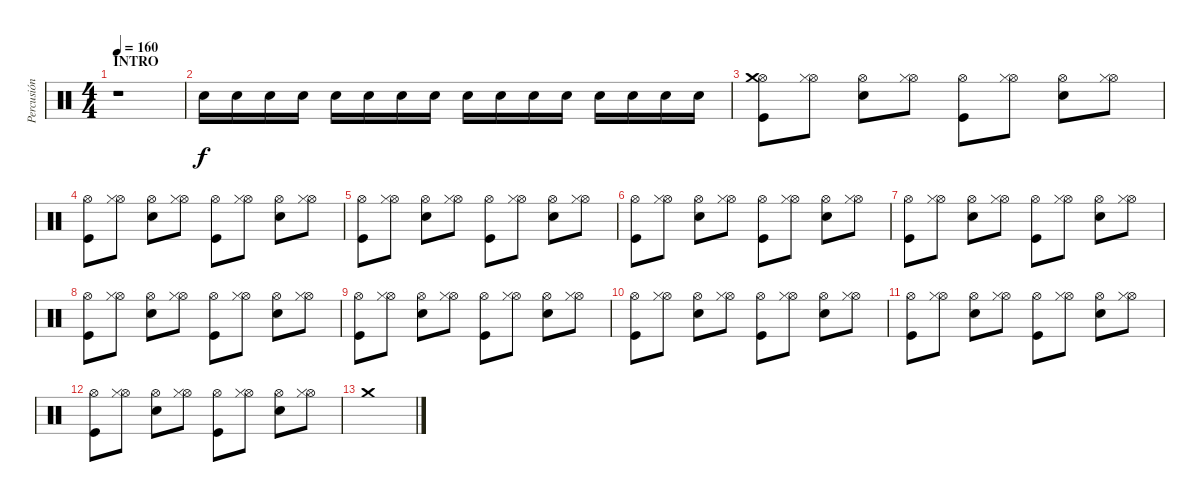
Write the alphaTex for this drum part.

\track ("Percusión" "Percusión") {instrument percussion}
\staff {score}
\articulation defaults
\ts (4 4)
\section ("" "INTRO")
\tempo 160
\clef neutral
\ks c
r.1{dy f} |
"Snare (hit) 2".16 "Snare (hit) 2".16 "Snare (hit) 2".16 "Snare (hit) 2".16 "Snare (hit) 2".16 "Snare (hit) 2".16 "Snare (hit) 2".16 "Snare (hit) 2".16 "Snare (hit) 2".16 "Snare (hit) 2".16 "Snare (hit) 2".16 "Snare (hit) 2".16 "Snare (hit) 2".16 "Snare (hit) 2".16 "Snare (hit) 2".16 "Snare (hit) 2".16 |
("Kick (hit)" "Hi-Hat (open)" "Crash medium (hit)").8 ("Hi-Hat (open)" "Hi-Hat (closed)").8 ("Snare (hit) 2" "Hi-Hat (open)").8 ("Hi-Hat (open)" "Hi-Hat (closed)").8 ("Kick (hit)" "Hi-Hat (open)").8 ("Hi-Hat (open)" "Hi-Hat (closed)").8 ("Snare (hit) 2" "Hi-Hat (open)").8 ("Hi-Hat (open)" "Hi-Hat (closed)").8 |
("Kick (hit)" "Hi-Hat (open)").8 ("Hi-Hat (open)" "Hi-Hat (closed)").8 ("Snare (hit) 2" "Hi-Hat (open)").8 ("Hi-Hat (open)" "Hi-Hat (closed)").8 ("Kick (hit)" "Hi-Hat (open)").8 ("Hi-Hat (open)" "Hi-Hat (closed)").8 ("Snare (hit) 2" "Hi-Hat (open)").8 ("Hi-Hat (open)" "Hi-Hat (closed)").8 |
("Kick (hit)" "Hi-Hat (open)").8 ("Hi-Hat (open)" "Hi-Hat (closed)").8 ("Snare (hit) 2" "Hi-Hat (open)").8 ("Hi-Hat (open)" "Hi-Hat (closed)").8 ("Kick (hit)" "Hi-Hat (open)").8 ("Hi-Hat (open)" "Hi-Hat (closed)").8 ("Snare (hit) 2" "Hi-Hat (open)").8 ("Hi-Hat (open)" "Hi-Hat (closed)").8 |
("Kick (hit)" "Hi-Hat (open)").8 ("Hi-Hat (open)" "Hi-Hat (closed)").8 ("Snare (hit) 2" "Hi-Hat (open)").8 ("Hi-Hat (open)" "Hi-Hat (closed)").8 ("Kick (hit)" "Hi-Hat (open)").8 ("Hi-Hat (open)" "Hi-Hat (closed)").8 ("Snare (hit) 2" "Hi-Hat (open)").8 ("Hi-Hat (open)" "Hi-Hat (closed)").8 |
("Kick (hit)" "Hi-Hat (open)").8 ("Hi-Hat (open)" "Hi-Hat (closed)").8 ("Snare (hit) 2" "Hi-Hat (open)").8 ("Hi-Hat (open)" "Hi-Hat (closed)").8 ("Kick (hit)" "Hi-Hat (open)").8 ("Hi-Hat (open)" "Hi-Hat (closed)").8 ("Snare (hit) 2" "Hi-Hat (open)").8 ("Hi-Hat (open)" "Hi-Hat (closed)").8 |
("Kick (hit)" "Hi-Hat (open)").8 ("Hi-Hat (open)" "Hi-Hat (closed)").8 ("Snare (hit) 2" "Hi-Hat (open)").8 ("Hi-Hat (open)" "Hi-Hat (closed)").8 ("Kick (hit)" "Hi-Hat (open)").8 ("Hi-Hat (open)" "Hi-Hat (closed)").8 ("Snare (hit) 2" "Hi-Hat (open)").8 ("Hi-Hat (open)" "Hi-Hat (closed)").8 |
("Kick (hit)" "Hi-Hat (open)").8 ("Hi-Hat (open)" "Hi-Hat (closed)").8 ("Snare (hit) 2" "Hi-Hat (open)").8 ("Hi-Hat (open)" "Hi-Hat (closed)").8 ("Kick (hit)" "Hi-Hat (open)").8 ("Hi-Hat (open)" "Hi-Hat (closed)").8 ("Snare (hit) 2" "Hi-Hat (open)").8 ("Hi-Hat (open)" "Hi-Hat (closed)").8 |
("Kick (hit)" "Hi-Hat (open)").8 ("Hi-Hat (open)" "Hi-Hat (closed)").8 ("Snare (hit) 2" "Hi-Hat (open)").8 ("Hi-Hat (open)" "Hi-Hat (closed)").8 ("Kick (hit)" "Hi-Hat (open)").8 ("Hi-Hat (open)" "Hi-Hat (closed)").8 ("Snare (hit) 2" "Hi-Hat (open)").8 ("Hi-Hat (open)" "Hi-Hat (closed)").8 |
("Kick (hit)" "Hi-Hat (open)").8 ("Hi-Hat (open)" "Hi-Hat (closed)").8 ("Snare (hit) 2" "Hi-Hat (open)").8 ("Hi-Hat (open)" "Hi-Hat (closed)").8 ("Kick (hit)" "Hi-Hat (open)").8 ("Hi-Hat (open)" "Hi-Hat (closed)").8 ("Snare (hit) 2" "Hi-Hat (open)").8 ("Hi-Hat (open)" "Hi-Hat (closed)").8 |
("Kick (hit)" "Hi-Hat (open)").8 ("Hi-Hat (open)" "Hi-Hat (closed)").8 ("Snare (hit) 2" "Hi-Hat (open)").8 ("Hi-Hat (open)" "Hi-Hat (closed)").8 ("Kick (hit)" "Hi-Hat (open)").8 ("Hi-Hat (open)" "Hi-Hat (closed)").8 ("Snare (hit) 2" "Hi-Hat (open)").8 ("Hi-Hat (open)" "Hi-Hat (closed)").8 |
"Crash medium (hit)".1
